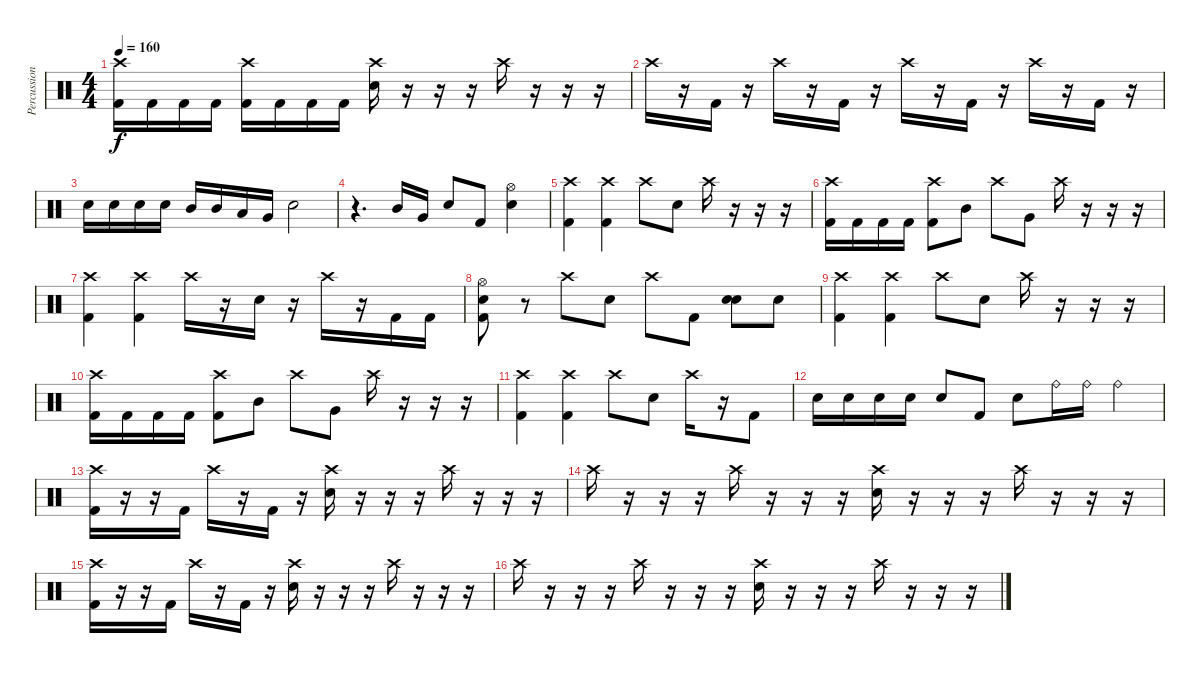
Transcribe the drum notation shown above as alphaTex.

\track ("Percussion" "Percussion") {instrument percussion}
\staff {score}
\articulation defaults
\ts (4 4)
\tempo 160
\clef neutral
\ks c
("Crash high (hit)" "Kick (hit) 2").16{dy f} "Kick (hit) 2".16 "Kick (hit) 2".16 "Kick (hit) 2".16 ("Crash high (hit)" "Kick (hit) 2").16 "Kick (hit) 2".16 "Kick (hit) 2".16 "Kick (hit) 2".16 ("Crash high (hit)" "Snare (hit) 2").16 r.16 r.16 r.16 "Crash high (hit)".16 r.16 r.16 r.16 |
"Crash high (hit)".16 r.16 "Kick (hit) 2".16 r.16 "Crash high (hit)".16 r.16 "Kick (hit) 2".16 r.16 "Crash high (hit)".16 r.16 "Kick (hit) 2".16 r.16 "Crash high (hit)".16 r.16 "Kick (hit) 2".16 r.16 |
"Snare (hit) 2".16 "Snare (hit) 2".16 "Snare (hit) 2".16 "Snare (hit) 2".16 "Mid Tom (hit)".16 "Mid Tom (hit)".16 "Low Tom (hit)".16 "Very Low Tom (hit)".16 "Snare (hit) 2".2 |
r.4{d} "Mid Tom (hit)".16 "Very Low Tom (hit)".16 "Snare (hit) 2".8 "Kick (hit) 2".8 ("Hi-Hat (open)" "Snare (hit) 2").4 |
("Crash high (hit)" "Kick (hit) 2").4 ("Crash high (hit)" "Kick (hit) 2").4 "Crash high (hit)".8 "Snare (hit) 2".8 "Crash high (hit)".16 r.16 r.16 r.16 |
("Crash high (hit)" "Kick (hit) 2").16 "Kick (hit) 2".16 "Kick (hit) 2".16 "Kick (hit) 2".16 ("Crash high (hit)" "Kick (hit) 2").8 "Mid Tom (hit)".8 "Crash high (hit)".8 "Very Low Tom (hit)".8 "Crash high (hit)".16 r.16 r.16 r.16 |
("Crash high (hit)" "Kick (hit) 2").4 ("Crash high (hit)" "Kick (hit) 2").4 "Crash high (hit)".16 r.16 "Snare (hit) 2".16 r.16 "Crash high (hit)".16 r.16 "Kick (hit) 2".16 "Kick (hit) 2".16 |
("Hi-Hat (open)" "Snare (hit) 2" "Kick (hit) 2").8 r.8 "Crash high (hit)".8 "Snare (hit) 2".8 "Crash high (hit)".8 "Kick (hit) 2".8 ("Snare (hit) 2" "Snare (hit) 2").8{bd 480} "Snare (hit) 2".8 |
("Crash high (hit)" "Kick (hit) 2").4 ("Crash high (hit)" "Kick (hit) 2").4 "Crash high (hit)".8 "Snare (hit) 2".8 "Crash high (hit)".16 r.16 r.16 r.16 |
("Crash high (hit)" "Kick (hit) 2").16 "Kick (hit) 2".16 "Kick (hit) 2".16 "Kick (hit) 2".16 ("Crash high (hit)" "Kick (hit) 2").8 "Mid Tom (hit)".8 "Crash high (hit)".8 "Very Low Tom (hit)".8 "Crash high (hit)".16 r.16 r.16 r.16 |
("Crash high (hit)" "Kick (hit) 2").4 ("Crash high (hit)" "Kick (hit) 2").4 "Crash high (hit)".8 "Snare (hit) 2".8 "Crash high (hit)".16 r.16 "Kick (hit) 2".8 |
"Snare (hit) 2".16 "Snare (hit) 2".16 "Snare (hit) 2".16 "Snare (hit) 2".16 "Snare (hit) 2".8 "Kick (hit) 2".8 "Snare (hit) 2".8 "Ride (bell)".16 "Ride (bell)".16 "Ride (bell)".4 |
("Crash high (hit)" "Kick (hit) 2").16 r.16 r.16 "Kick (hit) 2".16 "Crash high (hit)".16 r.16 "Kick (hit) 2".16 r.16 ("Crash high (hit)" "Snare (hit) 2").16 r.16 r.16 r.16 "Crash high (hit)".16 r.16 r.16 r.16 |
"Crash high (hit)".16 r.16 r.16 r.16 "Crash high (hit)".16 r.16 r.16 r.16 ("Crash high (hit)" "Snare (hit) 2").16 r.16 r.16 r.16 "Crash high (hit)".16 r.16 r.16 r.16 |
("Crash high (hit)" "Kick (hit) 2").16 r.16 r.16 "Kick (hit) 2".16 "Crash high (hit)".16 r.16 "Kick (hit) 2".16 r.16 ("Crash high (hit)" "Snare (hit) 2").16 r.16 r.16 r.16 "Crash high (hit)".16 r.16 r.16 r.16 |
"Crash high (hit)".16 r.16 r.16 r.16 "Crash high (hit)".16 r.16 r.16 r.16 ("Crash high (hit)" "Snare (hit) 2").16 r.16 r.16 r.16 "Crash high (hit)".16 r.16 r.16 r.16
